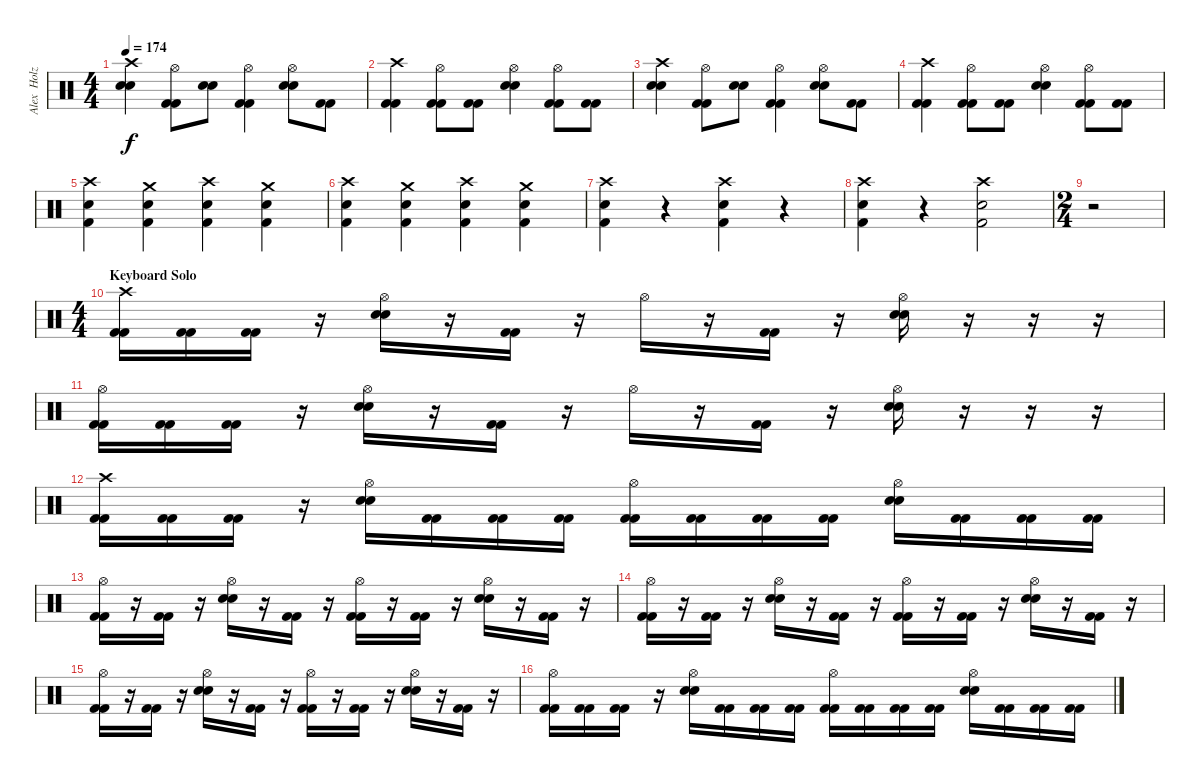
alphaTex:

\track ("Alex  Holzwarth (Drums)" "Alex  Holz") {instrument percussion}
\staff {score}
\articulation defaults
\ts (4 4)
\tempo 174
\clef neutral
\ks c
("Crash high (hit)" "Snare (hit) 2" "Snare (hit) 2").4{dy f} ("Hi-Hat (open)" "Kick (hit) 2" "Kick (hit) 2").8 ("Snare (hit) 2" "Snare (hit) 2").8 ("Hi-Hat (open)" "Kick (hit) 2" "Kick (hit) 2").4 ("Hi-Hat (open)" "Snare (hit) 2" "Snare (hit) 2").8 ("Kick (hit) 2" "Kick (hit) 2").8 |
("Crash high (hit)" "Kick (hit) 2" "Kick (hit) 2").4 ("Hi-Hat (open)" "Kick (hit) 2" "Kick (hit) 2").8 ("Kick (hit) 2" "Kick (hit) 2").8 ("Hi-Hat (open)" "Snare (hit) 2" "Snare (hit) 2").4 ("Hi-Hat (open)" "Kick (hit) 2" "Kick (hit) 2").8 ("Kick (hit) 2" "Kick (hit) 2").8 |
("Crash high (hit)" "Snare (hit) 2" "Snare (hit) 2").4 ("Hi-Hat (open)" "Kick (hit) 2" "Kick (hit) 2").8 ("Snare (hit) 2" "Snare (hit) 2").8 ("Hi-Hat (open)" "Kick (hit) 2" "Kick (hit) 2").4 ("Hi-Hat (open)" "Snare (hit) 2" "Snare (hit) 2").8 ("Kick (hit) 2" "Kick (hit) 2").8 |
("Crash high (hit)" "Kick (hit) 2" "Kick (hit) 2").4 ("Hi-Hat (open)" "Kick (hit) 2" "Kick (hit) 2").8 ("Kick (hit) 2" "Kick (hit) 2").8 ("Hi-Hat (open)" "Snare (hit) 2" "Snare (hit) 2").4 ("Hi-Hat (open)" "Kick (hit) 2" "Kick (hit) 2").8 ("Kick (hit) 2" "Kick (hit) 2").8 |
("Crash high (hit)" "Snare (hit) 2" "Kick (hit) 2").4 ("Crash medium (hit)" "Snare (hit) 2" "Kick (hit) 2").4 ("Crash high (hit)" "Snare (hit) 2" "Kick (hit) 2").4 ("Crash medium (hit)" "Snare (hit) 2" "Kick (hit) 2").4 |
("Crash high (hit)" "Snare (hit) 2" "Kick (hit) 2").4 ("Crash medium (hit)" "Snare (hit) 2" "Kick (hit) 2").4 ("Crash high (hit)" "Snare (hit) 2" "Kick (hit) 2").4 ("Crash medium (hit)" "Snare (hit) 2" "Kick (hit) 2").4 |
("Crash high (hit)" "Snare (hit) 2" "Kick (hit) 2").4 r.4 ("Crash high (hit)" "Snare (hit) 2" "Kick (hit) 2").4 r.4 |
("Crash high (hit)" "Snare (hit) 2" "Kick (hit) 2").4 r.4 ("Crash high (hit)" "Snare (hit) 2" "Kick (hit) 2").2 |
\ts (2 4)
r.2 |
\ts (4 4)
\section ("" "Keyboard Solo")
("Crash high (hit)" "Kick (hit) 2" "Kick (hit) 2").16 ("Kick (hit) 2" "Kick (hit) 2").16 ("Kick (hit) 2" "Kick (hit) 2").16 r.16 ("Hi-Hat (open)" "Snare (hit) 2" "Snare (hit) 2").16 r.16 ("Kick (hit) 2" "Kick (hit) 2").16 r.16 "Hi-Hat (open)".16 r.16 ("Kick (hit) 2" "Kick (hit) 2").16 r.16 ("Hi-Hat (open)" "Snare (hit) 2" "Snare (hit) 2").16 r.16 r.16 r.16 |
("Hi-Hat (open)" "Kick (hit) 2" "Kick (hit) 2").16 ("Kick (hit) 2" "Kick (hit) 2").16 ("Kick (hit) 2" "Kick (hit) 2").16 r.16 ("Hi-Hat (open)" "Snare (hit) 2" "Snare (hit) 2").16 r.16 ("Kick (hit) 2" "Kick (hit) 2").16 r.16 "Hi-Hat (open)".16 r.16 ("Kick (hit) 2" "Kick (hit) 2").16 r.16 ("Hi-Hat (open)" "Snare (hit) 2" "Snare (hit) 2").16 r.16 r.16 r.16 |
("Crash high (hit)" "Kick (hit) 2" "Kick (hit) 2").16 ("Kick (hit) 2" "Kick (hit) 2").16 ("Kick (hit) 2" "Kick (hit) 2").16 r.16 ("Hi-Hat (open)" "Snare (hit) 2" "Snare (hit) 2").16 ("Kick (hit) 2" "Kick (hit) 2").16 ("Kick (hit) 2" "Kick (hit) 2").16 ("Kick (hit) 2" "Kick (hit) 2").16 ("Hi-Hat (open)" "Kick (hit) 2" "Kick (hit) 2").16 ("Kick (hit) 2" "Kick (hit) 2").16 ("Kick (hit) 2" "Kick (hit) 2").16 ("Kick (hit) 2" "Kick (hit) 2").16 ("Hi-Hat (open)" "Snare (hit) 2" "Snare (hit) 2").16 ("Kick (hit) 2" "Kick (hit) 2").16 ("Kick (hit) 2" "Kick (hit) 2").16 ("Kick (hit) 2" "Kick (hit) 2").16 |
("Hi-Hat (open)" "Kick (hit) 2" "Kick (hit) 2").16 r.16 ("Kick (hit) 2" "Kick (hit) 2").16 r.16 ("Hi-Hat (open)" "Snare (hit) 2" "Snare (hit) 2").16 r.16 ("Kick (hit) 2" "Kick (hit) 2").16 r.16 ("Hi-Hat (open)" "Kick (hit) 2" "Kick (hit) 2").16 r.16 ("Kick (hit) 2" "Kick (hit) 2").16 r.16 ("Hi-Hat (open)" "Snare (hit) 2" "Snare (hit) 2").16 r.16 ("Kick (hit) 2" "Kick (hit) 2").16 r.16 |
("Hi-Hat (open)" "Kick (hit) 2" "Kick (hit) 2").16 r.16 ("Kick (hit) 2" "Kick (hit) 2").16 r.16 ("Hi-Hat (open)" "Snare (hit) 2" "Snare (hit) 2").16 r.16 ("Kick (hit) 2" "Kick (hit) 2").16 r.16 ("Hi-Hat (open)" "Kick (hit) 2" "Kick (hit) 2").16 r.16 ("Kick (hit) 2" "Kick (hit) 2").16 r.16 ("Hi-Hat (open)" "Snare (hit) 2" "Snare (hit) 2").16 r.16 ("Kick (hit) 2" "Kick (hit) 2").16 r.16 |
("Hi-Hat (open)" "Kick (hit) 2" "Kick (hit) 2").16 r.16 ("Kick (hit) 2" "Kick (hit) 2").16 r.16 ("Hi-Hat (open)" "Snare (hit) 2" "Snare (hit) 2").16 r.16 ("Kick (hit) 2" "Kick (hit) 2").16 r.16 ("Hi-Hat (open)" "Kick (hit) 2" "Kick (hit) 2").16 r.16 ("Kick (hit) 2" "Kick (hit) 2").16 r.16 ("Hi-Hat (open)" "Snare (hit) 2" "Snare (hit) 2").16 r.16 ("Kick (hit) 2" "Kick (hit) 2").16 r.16 |
("Hi-Hat (open)" "Kick (hit) 2" "Kick (hit) 2").16 ("Kick (hit) 2" "Kick (hit) 2").16 ("Kick (hit) 2" "Kick (hit) 2").16 r.16 ("Hi-Hat (open)" "Snare (hit) 2" "Snare (hit) 2").16 ("Kick (hit) 2" "Kick (hit) 2").16 ("Kick (hit) 2" "Kick (hit) 2").16 ("Kick (hit) 2" "Kick (hit) 2").16 ("Hi-Hat (open)" "Kick (hit) 2" "Kick (hit) 2").16 ("Kick (hit) 2" "Kick (hit) 2").16 ("Kick (hit) 2" "Kick (hit) 2").16 ("Kick (hit) 2" "Kick (hit) 2").16 ("Hi-Hat (open)" "Snare (hit) 2" "Snare (hit) 2").16 ("Kick (hit) 2" "Kick (hit) 2").16 ("Kick (hit) 2" "Kick (hit) 2").16 ("Kick (hit) 2" "Kick (hit) 2").16
